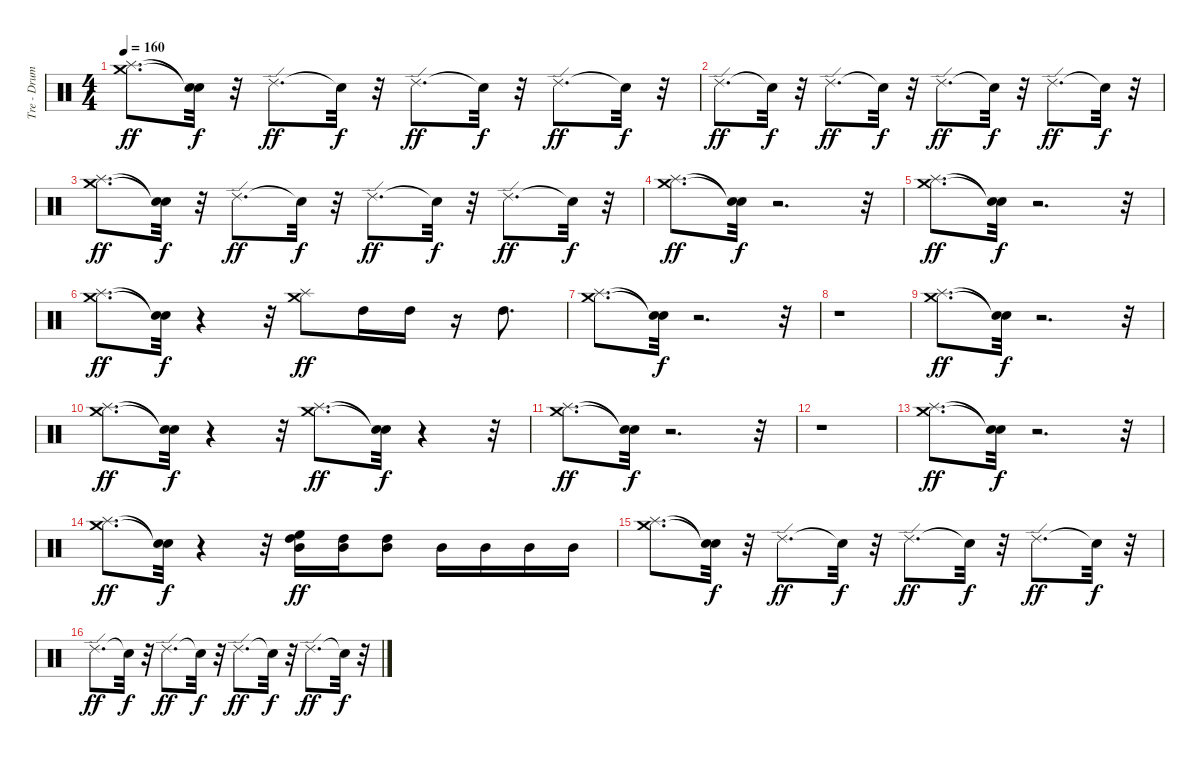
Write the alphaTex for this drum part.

\track ("Tre - Drums" "Tre - Drum") {instrument percussion}
\staff {score}
\articulation defaults
\ts (4 4)
\tempo 160
\clef neutral
\ks c
("Splash (hit)" "Crash medium (hit)").8{d dy ff} ("Snare (hit)"{t} "Snare (hit)"{t}).32{dy f} r.32 "Ride (edge) 2".8{d dy ff} "Snare (hit)"{t}.32{dy f} r.32 "Ride (edge) 2".8{d dy ff} "Snare (hit)"{t}.32{dy f} r.32 "Ride (edge) 2".8{d dy ff} "Snare (hit)"{t}.32{dy f} r.32 |
"Ride (edge) 2".8{d dy ff} "Snare (hit)"{t}.32{dy f} r.32 "Ride (edge) 2".8{d dy ff} "Snare (hit)"{t}.32{dy f} r.32 "Ride (edge) 2".8{d dy ff} "Snare (hit)"{t}.32{dy f} r.32 "Ride (edge) 2".8{d dy ff} "Snare (hit)"{t}.32{dy f} r.32 |
("Splash (hit)" "Crash medium (hit)").8{d dy ff} ("Snare (hit)"{t} "Snare (hit)"{t}).32{dy f} r.32 "Ride (edge) 2".8{d dy ff} "Snare (hit)"{t}.32{dy f} r.32 "Ride (edge) 2".8{d dy ff} "Snare (hit)"{t}.32{dy f} r.32 "Ride (edge) 2".8{d dy ff} "Snare (hit)"{t}.32{dy f} r.32 |
("Splash (hit)" "Crash medium (hit)").8{d dy ff} ("Snare (hit)"{t} "Snare (hit)"{t}).32{dy f} r.2{d} r.32 |
("Splash (hit)" "Crash medium (hit)").8{d dy ff} ("Snare (hit)"{t} "Snare (hit)"{t}).32{dy f} r.2{d} r.32 |
("Splash (hit)" "Crash medium (hit)").8{d dy ff} ("Snare (hit)"{t} "Snare (hit)"{t}).32{dy f} r.4 r.32 ("Splash (hit)" "Crash medium (hit)").8{dy ff} "High Tom (hit)".16 "High Tom (hit)".16 r.16 "High Tom (hit)".8{d} |
("Splash (hit)" "Crash medium (hit)").8{d} ("Snare (hit)"{t} "Snare (hit)"{t}).32{dy f} r.2{d} r.32 |
r.1 |
("Splash (hit)" "Crash medium (hit)").8{d dy ff} ("Snare (hit)"{t} "Snare (hit)"{t}).32{dy f} r.2{d} r.32 |
("Splash (hit)" "Crash medium (hit)").8{d dy ff} ("Snare (hit)"{t} "Snare (hit)"{t}).32{dy f} r.4 r.32 ("Splash (hit)" "Crash medium (hit)").8{d dy ff} ("Snare (hit)"{t} "Snare (hit)"{t}).32{dy f} r.4 r.32 |
("Splash (hit)" "Crash medium (hit)").8{d dy ff} ("Snare (hit)"{t} "Snare (hit)"{t}).32{dy f} r.2{d} r.32 |
r.1 |
("Splash (hit)" "Crash medium (hit)").8{d dy ff} ("Snare (hit)"{t} "Snare (hit)"{t}).32{dy f} r.2{d} r.32 |
("Splash (hit)" "Crash medium (hit)").8{d dy ff} ("Snare (hit)"{t} "Snare (hit)"{t}).32{dy f} r.4 r.32 ("Mid Tom (hit)" "High Tom (hit)" "High Floor Tom (hit)").16{dy ff} ("Mid Tom (hit)" "High Tom (hit)").16 ("Mid Tom (hit)" "High Tom (hit)").8 "Mid Tom (hit)".16 "Mid Tom (hit)".16 "Mid Tom (hit)".16 "Mid Tom (hit)".16 |
("Splash (hit)" "Crash medium (hit)").8{d} ("Snare (hit)"{t} "Snare (hit)"{t}).32{dy f} r.32 "Ride (edge) 2".8{d dy ff} "Snare (hit)"{t}.32{dy f} r.32 "Ride (edge) 2".8{d dy ff} "Snare (hit)"{t}.32{dy f} r.32 "Ride (edge) 2".8{d dy ff} "Snare (hit)"{t}.32{dy f} r.32 |
"Ride (edge) 2".8{d dy ff} "Snare (hit)"{t}.32{dy f} r.32 "Ride (edge) 2".8{d dy ff} "Snare (hit)"{t}.32{dy f} r.32 "Ride (edge) 2".8{d dy ff} "Snare (hit)"{t}.32{dy f} r.32 "Ride (edge) 2".8{d dy ff} "Snare (hit)"{t}.32{dy f} r.32
